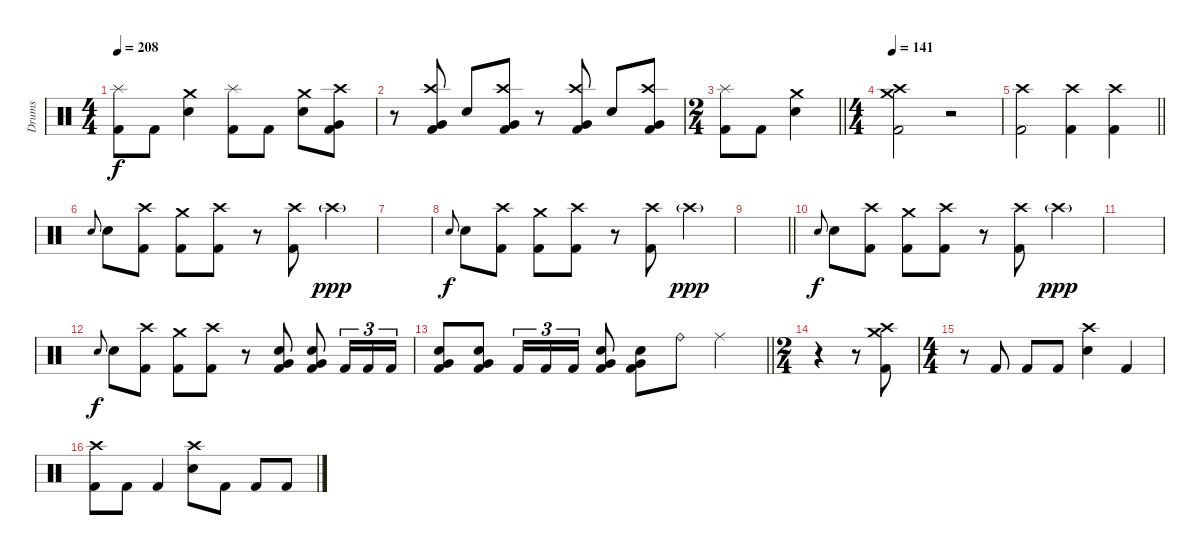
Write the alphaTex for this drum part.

\track ("Drums" "Drums") {instrument percussion}
\staff {score}
\articulation defaults
\ts (4 4)
\tempo 208
\clef neutral
\ks c
("Splash (hit)" "Kick (hit) 2").8{dy f} "Kick (hit) 2".8 ("Crash medium (hit)" "Electric Snare (hit)").4 ("Splash (hit)" "Kick (hit) 2").8 "Kick (hit) 2".8 ("Crash medium (hit)" "Electric Snare (hit)").8 ("Crash high (hit)" "Very Low Tom (hit)" "Kick (hit) 2").8 |
r.8 ("Crash high (hit)" "Very Low Tom (hit)" "Kick (hit) 2").8 "Electric Snare (hit)".8 ("Crash high (hit)" "Very Low Tom (hit)" "Kick (hit) 2").8 r.8 ("Crash high (hit)" "Very Low Tom (hit)" "Kick (hit) 2").8 "Electric Snare (hit)".8 ("Crash high (hit)" "Very Low Tom (hit)" "Kick (hit) 2").8 |
\ts (2 4)
\barLineRight lightlight
("Splash (hit)" "Kick (hit) 2").8 "Kick (hit) 2".8 ("Crash medium (hit)" "Electric Snare (hit)").4 |
\ts (4 4)
\tempo 141
("Crash high (hit)" "Crash medium (hit)" "Kick (hit) 2").2 r.2 |
\barLineRight lightlight
("Crash high (hit)" "Kick (hit) 2").2 ("Crash high (hit)" "Kick (hit) 2").4 ("Crash high (hit)" "Kick (hit) 2").4 |
"Electric Snare (hit)".8{gr onbeat} "Electric Snare (hit)".8 ("Crash high (hit)" "Kick (hit) 2").8 ("Crash medium (hit)" "Kick (hit) 2").8 ("Crash high (hit)" "Kick (hit) 2").8 r.8 ("Crash high (hit)" "Kick (hit) 2").8 "Crash high (hit)"{g}.4{dy ppp} |
|
"Electric Snare (hit)".8{gr onbeat dy f} "Electric Snare (hit)".8 ("Crash high (hit)" "Kick (hit) 2").8 ("Crash medium (hit)" "Kick (hit) 2").8 ("Crash high (hit)" "Kick (hit) 2").8 r.8 ("Crash high (hit)" "Kick (hit) 2").8 "Crash high (hit)"{g}.4{dy ppp} |
\barLineRight lightlight
|
"Electric Snare (hit)".8{gr onbeat dy f} "Electric Snare (hit)".8 ("Crash high (hit)" "Kick (hit) 2").8 ("Crash medium (hit)" "Kick (hit) 2").8 ("Crash high (hit)" "Kick (hit) 2").8 r.8 ("Crash high (hit)" "Kick (hit) 2").8 "Crash high (hit)"{g}.4{dy ppp} |
|
"Electric Snare (hit)".8{gr onbeat dy f} "Electric Snare (hit)".8 ("Crash high (hit)" "Kick (hit) 2").8 ("Crash medium (hit)" "Kick (hit) 2").8 ("Crash high (hit)" "Kick (hit) 2").8 r.8 ("Electric Snare (hit)" "Very Low Tom (hit)" "Kick (hit) 2").8 ("Electric Snare (hit)" "Very Low Tom (hit)" "Kick (hit) 2").8 "Kick (hit) 2".16{tu (3 2)} "Kick (hit) 2".16{tu (3 2)} "Kick (hit) 2".16{tu (3 2)} |
\barLineRight lightlight
("Electric Snare (hit)" "Very Low Tom (hit)" "Kick (hit) 2").8 ("Electric Snare (hit)" "Very Low Tom (hit)" "Kick (hit) 2").8 "Kick (hit) 2".16{tu (3 2)} "Kick (hit) 2".16{tu (3 2)} "Kick (hit) 2".16{tu (3 2)} ("Electric Snare (hit)" "Very Low Tom (hit)" "Kick (hit) 2").8 ("Electric Snare (hit)" "Very Low Tom (hit)" "Kick (hit) 2").8 "Ride (bell)".8 "Ride (middle)".4 |
\ts (2 4)
r.4 r.8 ("Crash high (hit)" "Crash medium (hit)" "Kick (hit) 2").8 |
\ts (4 4)
r.8 "Kick (hit) 2".8 "Kick (hit) 2".8 "Kick (hit) 2".8 ("Crash high (hit)" "Electric Snare (hit)").4 "Kick (hit) 2".4 |
("Crash high (hit)" "Kick (hit) 2").8 "Kick (hit) 2".8 "Kick (hit) 2".4 ("Crash high (hit)" "Electric Snare (hit)").8 "Kick (hit) 2".8 "Kick (hit) 2".8 "Kick (hit) 2".8
